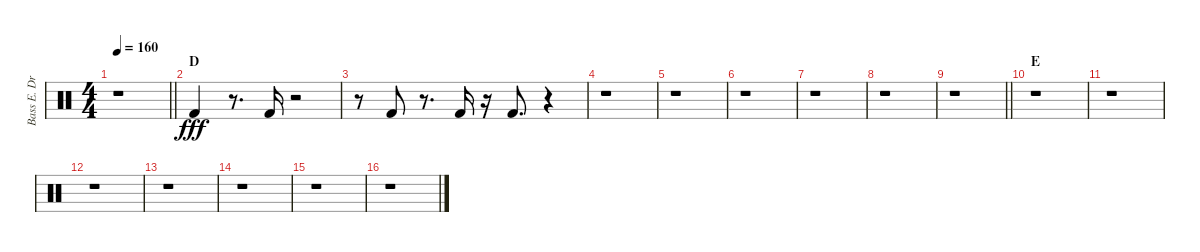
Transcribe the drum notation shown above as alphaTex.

\track ("Bass E. Drum" "Bass E. Dr") {instrument percussion}
\staff {score}
\articulation defaults
\ts (4 4)
\tempo 160
\clef neutral
\barLineRight lightlight
\ks c
r.1{dy fff} |
\section ("" "D")
"Kick (hit) 2".4 r.8{d} "Kick (hit) 2".16 r.2 |
r.8 "Kick (hit) 2".8 r.8{d} "Kick (hit) 2".16 r.16 "Kick (hit) 2".8{d} r.4 |
r.1 |
r.1 |
r.1 |
r.1 |
r.1 |
\barLineRight lightlight
r.1 |
\section ("" "E")
r.1 |
r.1 |
r.1 |
r.1 |
r.1 |
r.1 |
r.1
